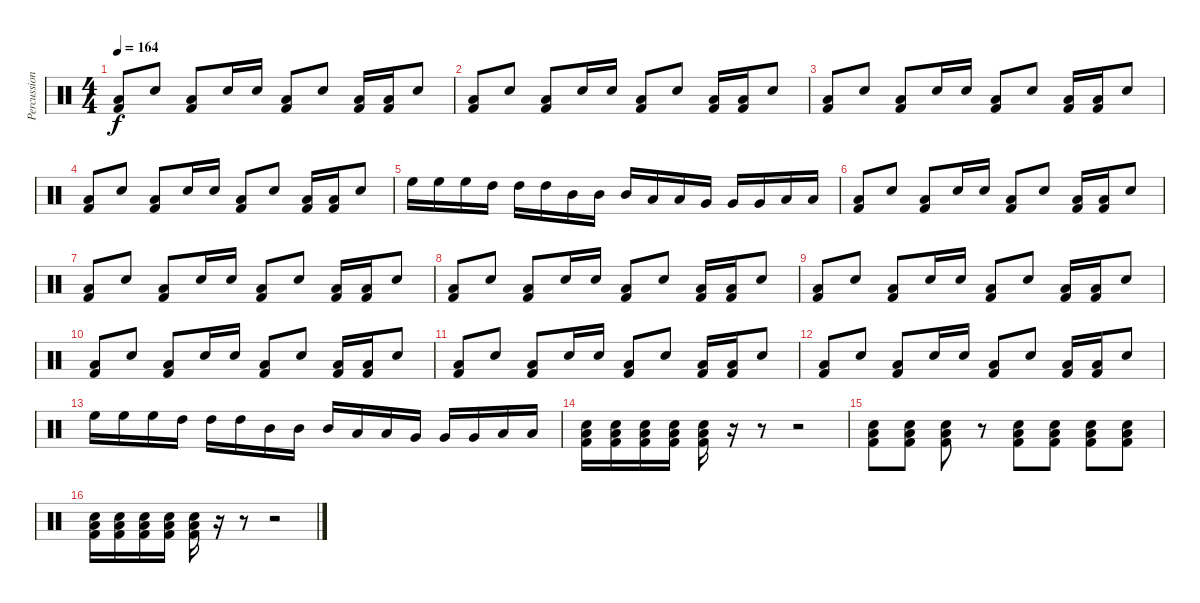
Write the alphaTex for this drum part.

\track ("Percussion" "Percussion") {instrument percussion}
\staff {score}
\articulation defaults
\ts (4 4)
\tempo 164
\clef neutral
\ks c
("Low Floor Tom (hit)" "Kick (hit) 2").8{dy f} "Snare (hit) 2".8 ("Low Floor Tom (hit)" "Kick (hit) 2").8 "Snare (hit) 2".16 "Snare (hit) 2".16 ("Low Floor Tom (hit)" "Kick (hit) 2").8 "Snare (hit) 2".8 ("Low Floor Tom (hit)" "Kick (hit) 2").16 ("Low Floor Tom (hit)" "Kick (hit) 2").16 "Snare (hit) 2".8 |
("Low Floor Tom (hit)" "Kick (hit) 2").8 "Snare (hit) 2".8 ("Low Floor Tom (hit)" "Kick (hit) 2").8 "Snare (hit) 2".16 "Snare (hit) 2".16 ("Low Floor Tom (hit)" "Kick (hit) 2").8 "Snare (hit) 2".8 ("Low Floor Tom (hit)" "Kick (hit) 2").16 ("Low Floor Tom (hit)" "Kick (hit) 2").16 "Snare (hit) 2".8 |
("Low Floor Tom (hit)" "Kick (hit) 2").8 "Snare (hit) 2".8 ("Low Floor Tom (hit)" "Kick (hit) 2").8 "Snare (hit) 2".16 "Snare (hit) 2".16 ("Low Floor Tom (hit)" "Kick (hit) 2").8 "Snare (hit) 2".8 ("Low Floor Tom (hit)" "Kick (hit) 2").16 ("Low Floor Tom (hit)" "Kick (hit) 2").16 "Snare (hit) 2".8 |
("Low Floor Tom (hit)" "Kick (hit) 2").8 "Snare (hit) 2".8 ("Low Floor Tom (hit)" "Kick (hit) 2").8 "Snare (hit) 2".16 "Snare (hit) 2".16 ("Low Floor Tom (hit)" "Kick (hit) 2").8 "Snare (hit) 2".8 ("Low Floor Tom (hit)" "Kick (hit) 2").16 ("Low Floor Tom (hit)" "Kick (hit) 2").16 "Snare (hit) 2".8 |
"High Floor Tom (hit)".16 "High Floor Tom (hit)".16 "High Floor Tom (hit)".16 "High Tom (hit)".16 "High Tom (hit)".16 "High Tom (hit)".16 "Mid Tom (hit)".16 "Mid Tom (hit)".16 "Mid Tom (hit)".16 "Low Tom (hit)".16 "Low Tom (hit)".16 "Very Low Tom (hit)".16 "Very Low Tom (hit)".16 "Very Low Tom (hit)".16 "Low Floor Tom (hit)".16 "Low Floor Tom (hit)".16 |
("Low Floor Tom (hit)" "Kick (hit) 2").8 "Snare (hit) 2".8 ("Low Floor Tom (hit)" "Kick (hit) 2").8 "Snare (hit) 2".16 "Snare (hit) 2".16 ("Low Floor Tom (hit)" "Kick (hit) 2").8 "Snare (hit) 2".8 ("Low Floor Tom (hit)" "Kick (hit) 2").16 ("Low Floor Tom (hit)" "Kick (hit) 2").16 "Snare (hit) 2".8 |
("Low Floor Tom (hit)" "Kick (hit) 2").8 "Snare (hit) 2".8 ("Low Floor Tom (hit)" "Kick (hit) 2").8 "Snare (hit) 2".16 "Snare (hit) 2".16 ("Low Floor Tom (hit)" "Kick (hit) 2").8 "Snare (hit) 2".8 ("Low Floor Tom (hit)" "Kick (hit) 2").16 ("Low Floor Tom (hit)" "Kick (hit) 2").16 "Snare (hit) 2".8 |
("Low Floor Tom (hit)" "Kick (hit) 2").8 "Snare (hit) 2".8 ("Low Floor Tom (hit)" "Kick (hit) 2").8 "Snare (hit) 2".16 "Snare (hit) 2".16 ("Low Floor Tom (hit)" "Kick (hit) 2").8 "Snare (hit) 2".8 ("Low Floor Tom (hit)" "Kick (hit) 2").16 ("Low Floor Tom (hit)" "Kick (hit) 2").16 "Snare (hit) 2".8 |
("Low Floor Tom (hit)" "Kick (hit) 2").8 "Snare (hit) 2".8 ("Low Floor Tom (hit)" "Kick (hit) 2").8 "Snare (hit) 2".16 "Snare (hit) 2".16 ("Low Floor Tom (hit)" "Kick (hit) 2").8 "Snare (hit) 2".8 ("Low Floor Tom (hit)" "Kick (hit) 2").16 ("Low Floor Tom (hit)" "Kick (hit) 2").16 "Snare (hit) 2".8 |
("Low Floor Tom (hit)" "Kick (hit) 2").8 "Snare (hit) 2".8 ("Low Floor Tom (hit)" "Kick (hit) 2").8 "Snare (hit) 2".16 "Snare (hit) 2".16 ("Low Floor Tom (hit)" "Kick (hit) 2").8 "Snare (hit) 2".8 ("Low Floor Tom (hit)" "Kick (hit) 2").16 ("Low Floor Tom (hit)" "Kick (hit) 2").16 "Snare (hit) 2".8 |
("Low Floor Tom (hit)" "Kick (hit) 2").8 "Snare (hit) 2".8 ("Low Floor Tom (hit)" "Kick (hit) 2").8 "Snare (hit) 2".16 "Snare (hit) 2".16 ("Low Floor Tom (hit)" "Kick (hit) 2").8 "Snare (hit) 2".8 ("Low Floor Tom (hit)" "Kick (hit) 2").16 ("Low Floor Tom (hit)" "Kick (hit) 2").16 "Snare (hit) 2".8 |
("Low Floor Tom (hit)" "Kick (hit) 2").8 "Snare (hit) 2".8 ("Low Floor Tom (hit)" "Kick (hit) 2").8 "Snare (hit) 2".16 "Snare (hit) 2".16 ("Low Floor Tom (hit)" "Kick (hit) 2").8 "Snare (hit) 2".8 ("Low Floor Tom (hit)" "Kick (hit) 2").16 ("Low Floor Tom (hit)" "Kick (hit) 2").16 "Snare (hit) 2".8 |
"High Floor Tom (hit)".16 "High Floor Tom (hit)".16 "High Floor Tom (hit)".16 "High Tom (hit)".16 "High Tom (hit)".16 "High Tom (hit)".16 "Mid Tom (hit)".16 "Mid Tom (hit)".16 "Mid Tom (hit)".16 "Low Tom (hit)".16 "Low Tom (hit)".16 "Very Low Tom (hit)".16 "Very Low Tom (hit)".16 "Very Low Tom (hit)".16 "Low Floor Tom (hit)".16 "Low Floor Tom (hit)".16 |
("Snare (hit) 2" "Low Floor Tom (hit)" "Kick (hit) 2").16 ("Snare (hit) 2" "Low Floor Tom (hit)" "Kick (hit) 2").16 ("Snare (hit) 2" "Low Floor Tom (hit)" "Kick (hit) 2").16 ("Snare (hit) 2" "Low Floor Tom (hit)" "Kick (hit) 2").16 ("Snare (hit) 2" "Low Floor Tom (hit)" "Kick (hit) 2").16 r.16 r.8 r.2 |
("Snare (hit) 2" "Low Floor Tom (hit)" "Kick (hit) 2").8 ("Snare (hit) 2" "Low Floor Tom (hit)" "Kick (hit) 2").8 ("Snare (hit) 2" "Low Floor Tom (hit)" "Kick (hit) 2").8 r.8 ("Snare (hit) 2" "Low Floor Tom (hit)" "Kick (hit) 2").8 ("Snare (hit) 2" "Low Floor Tom (hit)" "Kick (hit) 2").8 ("Snare (hit) 2" "Low Floor Tom (hit)" "Kick (hit) 2").8 ("Snare (hit) 2" "Low Floor Tom (hit)" "Kick (hit) 2").8 |
("Snare (hit) 2" "Low Floor Tom (hit)" "Kick (hit) 2").16 ("Snare (hit) 2" "Low Floor Tom (hit)" "Kick (hit) 2").16 ("Snare (hit) 2" "Low Floor Tom (hit)" "Kick (hit) 2").16 ("Snare (hit) 2" "Low Floor Tom (hit)" "Kick (hit) 2").16 ("Snare (hit) 2" "Low Floor Tom (hit)" "Kick (hit) 2").16 r.16 r.8 r.2
